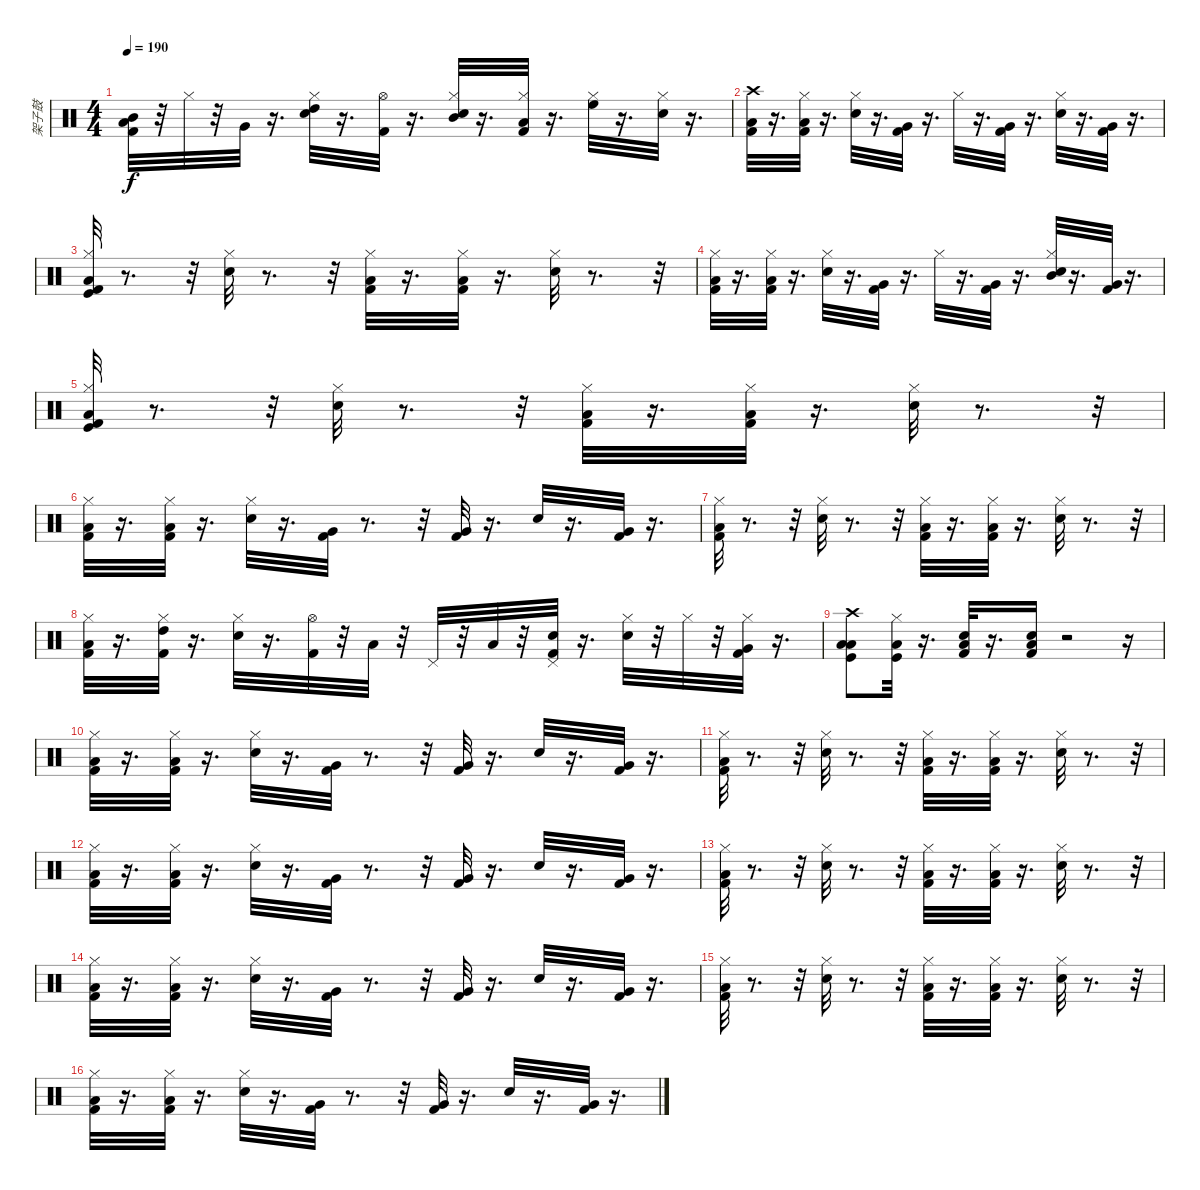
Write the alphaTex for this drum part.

\track ("架子鼓" "架子鼓") {instrument percussion}
\staff {score}
\articulation defaults
\ts (4 4)
\tempo 190
\clef neutral
\ks c
("Kick (hit) 2" "Mid Tom (hit)" "Low Floor Tom (hit)").32{dy f} r.32 "Hi-Hat (closed)".32 r.32 "Very Low Tom (hit)".32 r.16{d} ("High Tom (hit)" "Electric Snare (hit)" "Hi-Hat (closed)").32 r.16{d} ("Hi-Hat (open)" "Kick (hit) 2").32 r.16{d} ("Mid Tom (hit)" "Snare (hit) 2" "Hi-Hat (closed)").32 r.16{d} ("Low Tom (hit)" "Hi-Hat (closed)" "Kick (hit) 2").32 r.16{d} ("High Floor Tom (hit)" "Hi-Hat (closed)").32 r.16{d} ("Snare (hit) 2" "Hi-Hat (closed)").32 r.16{d} |
("Crash high (hit)" "Kick (hit) 2" "Low Floor Tom (hit)").32 r.16{d} ("Kick (hit) 2" "Hi-Hat (closed)" "Low Floor Tom (hit)").32 r.16{d} ("Hi-Hat (closed)" "Electric Snare (hit)").32 r.16{d} ("Kick (hit) 2" "Very Low Tom (hit)").32 r.16{d} "Hi-Hat (closed)".32 r.16{d} ("Kick (hit) 2" "Very Low Tom (hit)").32 r.16{d} ("Hi-Hat (closed)" "Snare (hit) 2").32 r.16{d} ("Kick (hit) 2" "Very Low Tom (hit)").32 r.16{d} |
("Kick (hit)" "Kick (hit) 2" "Hi-Hat (closed)" "Low Floor Tom (hit)").32 r.8{d} r.32 ("Hi-Hat (closed)" "Electric Snare (hit)").32 r.8{d} r.32 ("Kick (hit) 2" "Hi-Hat (closed)" "Low Floor Tom (hit)").32 r.16{d} ("Kick (hit) 2" "Hi-Hat (closed)" "Low Floor Tom (hit)").32 r.16{d} ("Hi-Hat (closed)" "Electric Snare (hit)").32 r.8{d} r.32 |
("Kick (hit) 2" "Hi-Hat (closed)" "Low Floor Tom (hit)").32 r.16{d} ("Low Floor Tom (hit)" "Hi-Hat (closed)" "Kick (hit) 2").32 r.16{d} ("Electric Snare (hit)" "Hi-Hat (closed)").32 r.16{d} ("Very Low Tom (hit)" "Kick (hit) 2").32 r.16{d} "Hi-Hat (closed)".32 r.16{d} ("Very Low Tom (hit)" "Kick (hit) 2").32 r.16{d} ("Hi-Hat (closed)" "Mid Tom (hit)" "Snare (hit) 2").32 r.16{d} ("Very Low Tom (hit)" "Kick (hit) 2").32 r.16{d} |
("Kick (hit)" "Kick (hit) 2" "Hi-Hat (closed)" "Low Floor Tom (hit)").32 r.8{d} r.32 ("Hi-Hat (closed)" "Electric Snare (hit)").32 r.8{d} r.32 ("Kick (hit) 2" "Hi-Hat (closed)" "Low Floor Tom (hit)").32 r.16{d} ("Kick (hit) 2" "Hi-Hat (closed)" "Low Floor Tom (hit)").32 r.16{d} ("Hi-Hat (closed)" "Electric Snare (hit)").32 r.8{d} r.32 |
("Kick (hit) 2" "Hi-Hat (closed)" "Low Floor Tom (hit)").32 r.16{d} ("Kick (hit) 2" "Hi-Hat (closed)" "Low Floor Tom (hit)").32 r.16{d} ("Hi-Hat (closed)" "Electric Snare (hit)").32 r.16{d} ("Kick (hit) 2" "Very Low Tom (hit)").32 r.8{d} r.32 ("Kick (hit) 2" "Very Low Tom (hit)").32 r.16{d} "Snare (hit) 2".32 r.16{d} ("Kick (hit) 2" "Very Low Tom (hit)").32 r.16{d} |
("Kick (hit) 2" "Hi-Hat (closed)" "Low Floor Tom (hit)").32 r.8{d} r.32 ("Hi-Hat (closed)" "Electric Snare (hit)").32 r.8{d} r.32 ("Kick (hit) 2" "Hi-Hat (closed)" "Low Floor Tom (hit)").32 r.16{d} ("Kick (hit) 2" "Hi-Hat (closed)" "Low Floor Tom (hit)").32 r.16{d} ("Hi-Hat (closed)" "Electric Snare (hit)").32 r.8{d} r.32 |
("Kick (hit) 2" "Hi-Hat (closed)" "Low Floor Tom (hit)").32 r.16{d} ("High Tom (hit)" "Kick (hit) 2" "Hi-Hat (closed)").32 r.16{d} ("Hi-Hat (closed)" "Electric Snare (hit)").32 r.16{d} ("Kick (hit) 2" "Hi-Hat (open)").32 r.32 "Low Floor Tom (hit)".32 r.32 "Pedal Hi-Hat (hit)".32 r.32 "Low Floor Tom (hit)".32 r.32 ("Pedal Hi-Hat (hit)" "Kick (hit) 2" "Snare (hit) 2").32 r.16{d} ("Hi-Hat (closed)" "Snare (hit) 2").32 r.32 "Hi-Hat (closed)".32 r.32 ("Hi-Hat (closed)" "Kick (hit) 2" "Very Low Tom (hit)").32 r.16{d} |
("Low Tom (hit)" "Kick (hit)" "Low Floor Tom (hit)" "Crash high (hit)").8 ("Kick (hit)" "Low Tom (hit)" "Hi-Hat (closed)").32 r.16{d} ("Kick (hit) 2" "Low Tom (hit)" "Electric Snare (hit)").32 r.16{d} ("Kick (hit) 2" "Electric Snare (hit)" "Low Tom (hit)").16 r.2 r.16 |
("Kick (hit) 2" "Hi-Hat (closed)" "Low Floor Tom (hit)").32 r.16{d} ("Kick (hit) 2" "Hi-Hat (closed)" "Low Floor Tom (hit)").32 r.16{d} ("Hi-Hat (closed)" "Electric Snare (hit)").32 r.16{d} ("Kick (hit) 2" "Very Low Tom (hit)").32 r.8{d} r.32 ("Kick (hit) 2" "Very Low Tom (hit)").32 r.16{d} "Snare (hit) 2".32 r.16{d} ("Kick (hit) 2" "Very Low Tom (hit)").32 r.16{d} |
("Kick (hit) 2" "Hi-Hat (closed)" "Low Floor Tom (hit)").32 r.8{d} r.32 ("Hi-Hat (closed)" "Electric Snare (hit)").32 r.8{d} r.32 ("Kick (hit) 2" "Hi-Hat (closed)" "Low Floor Tom (hit)").32 r.16{d} ("Kick (hit) 2" "Hi-Hat (closed)" "Low Floor Tom (hit)").32 r.16{d} ("Hi-Hat (closed)" "Electric Snare (hit)").32 r.8{d} r.32 |
("Kick (hit) 2" "Hi-Hat (closed)" "Low Floor Tom (hit)").32 r.16{d} ("Kick (hit) 2" "Hi-Hat (closed)" "Low Floor Tom (hit)").32 r.16{d} ("Hi-Hat (closed)" "Electric Snare (hit)").32 r.16{d} ("Kick (hit) 2" "Very Low Tom (hit)").32 r.8{d} r.32 ("Kick (hit) 2" "Very Low Tom (hit)").32 r.16{d} "Snare (hit) 2".32 r.16{d} ("Kick (hit) 2" "Very Low Tom (hit)").32 r.16{d} |
("Kick (hit) 2" "Hi-Hat (closed)" "Low Floor Tom (hit)").32 r.8{d} r.32 ("Hi-Hat (closed)" "Electric Snare (hit)").32 r.8{d} r.32 ("Kick (hit) 2" "Hi-Hat (closed)" "Low Floor Tom (hit)").32 r.16{d} ("Kick (hit) 2" "Hi-Hat (closed)" "Low Floor Tom (hit)").32 r.16{d} ("Electric Snare (hit)" "Hi-Hat (closed)").32 r.8{d} r.32 |
("Kick (hit) 2" "Hi-Hat (closed)" "Low Floor Tom (hit)").32 r.16{d} ("Kick (hit) 2" "Hi-Hat (closed)" "Low Floor Tom (hit)").32 r.16{d} ("Hi-Hat (closed)" "Electric Snare (hit)").32 r.16{d} ("Kick (hit) 2" "Very Low Tom (hit)").32 r.8{d} r.32 ("Kick (hit) 2" "Very Low Tom (hit)").32 r.16{d} "Snare (hit) 2".32 r.16{d} ("Kick (hit) 2" "Very Low Tom (hit)").32 r.16{d} |
("Kick (hit) 2" "Hi-Hat (closed)" "Low Floor Tom (hit)").32 r.8{d} r.32 ("Hi-Hat (closed)" "Electric Snare (hit)").32 r.8{d} r.32 ("Kick (hit) 2" "Hi-Hat (closed)" "Low Floor Tom (hit)").32 r.16{d} ("Kick (hit) 2" "Hi-Hat (closed)" "Low Floor Tom (hit)").32 r.16{d} ("Hi-Hat (closed)" "Electric Snare (hit)").32 r.8{d} r.32 |
("Kick (hit) 2" "Hi-Hat (closed)" "Low Floor Tom (hit)").32 r.16{d} ("Kick (hit) 2" "Hi-Hat (closed)" "Low Floor Tom (hit)").32 r.16{d} ("Hi-Hat (closed)" "Electric Snare (hit)").32 r.16{d} ("Kick (hit) 2" "Very Low Tom (hit)").32 r.8{d} r.32 ("Kick (hit) 2" "Very Low Tom (hit)").32 r.16{d} "Snare (hit) 2".32 r.16{d} ("Kick (hit) 2" "Very Low Tom (hit)").32 r.16{d}
